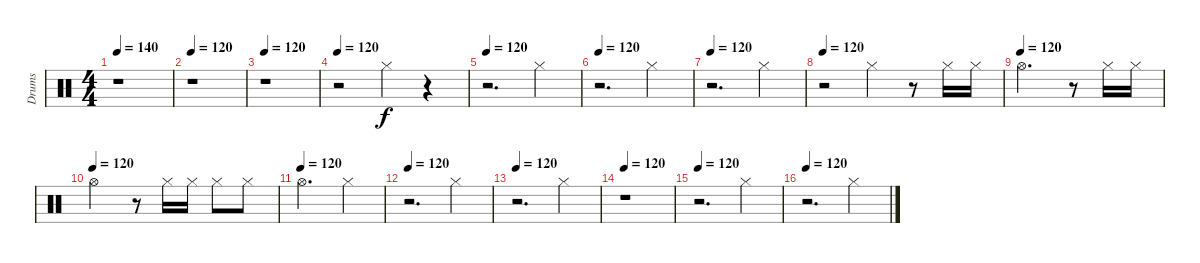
\track ("Drums" "Drums") {instrument percussion}
\staff {score}
\articulation defaults
\ts (4 4)
\tempo 140
\tempo 120
\tempo 140
\clef neutral
\ks c
r.1{dy f} |
\tempo 120
r.1 |
\tempo 120
r.1 |
\tempo 120
r.2 "Hi-Hat (closed)".4 r.4 |
\tempo 120
r.2{d} "Hi-Hat (closed)".4 |
\tempo 120
r.2{d} "Hi-Hat (closed)".4 |
\tempo 120
r.2{d} "Hi-Hat (closed)".4 |
\tempo 120
r.2 "Hi-Hat (closed)".4 r.8 "Hi-Hat (closed)".16 "Hi-Hat (closed)".16 |
\tempo (120)
"Hi-Hat (open)".2{d} r.8 "Hi-Hat (closed)".16 "Hi-Hat (closed)".16 |
\tempo (120)
"Hi-Hat (open)".2 r.8 "Hi-Hat (closed)".16 "Hi-Hat (closed)".16 "Hi-Hat (closed)".8 "Hi-Hat (closed)".8 |
\tempo (120)
"Hi-Hat (open)".2{d} "Hi-Hat (closed)".4 |
\tempo 120
r.2{d} "Hi-Hat (closed)".4 |
\tempo 120
r.2{d} "Hi-Hat (closed)".4 |
\tempo 120
r.1 |
\tempo 120
r.2{d} "Hi-Hat (closed)".4 |
\tempo 120
r.2{d} "Hi-Hat (closed)".4
